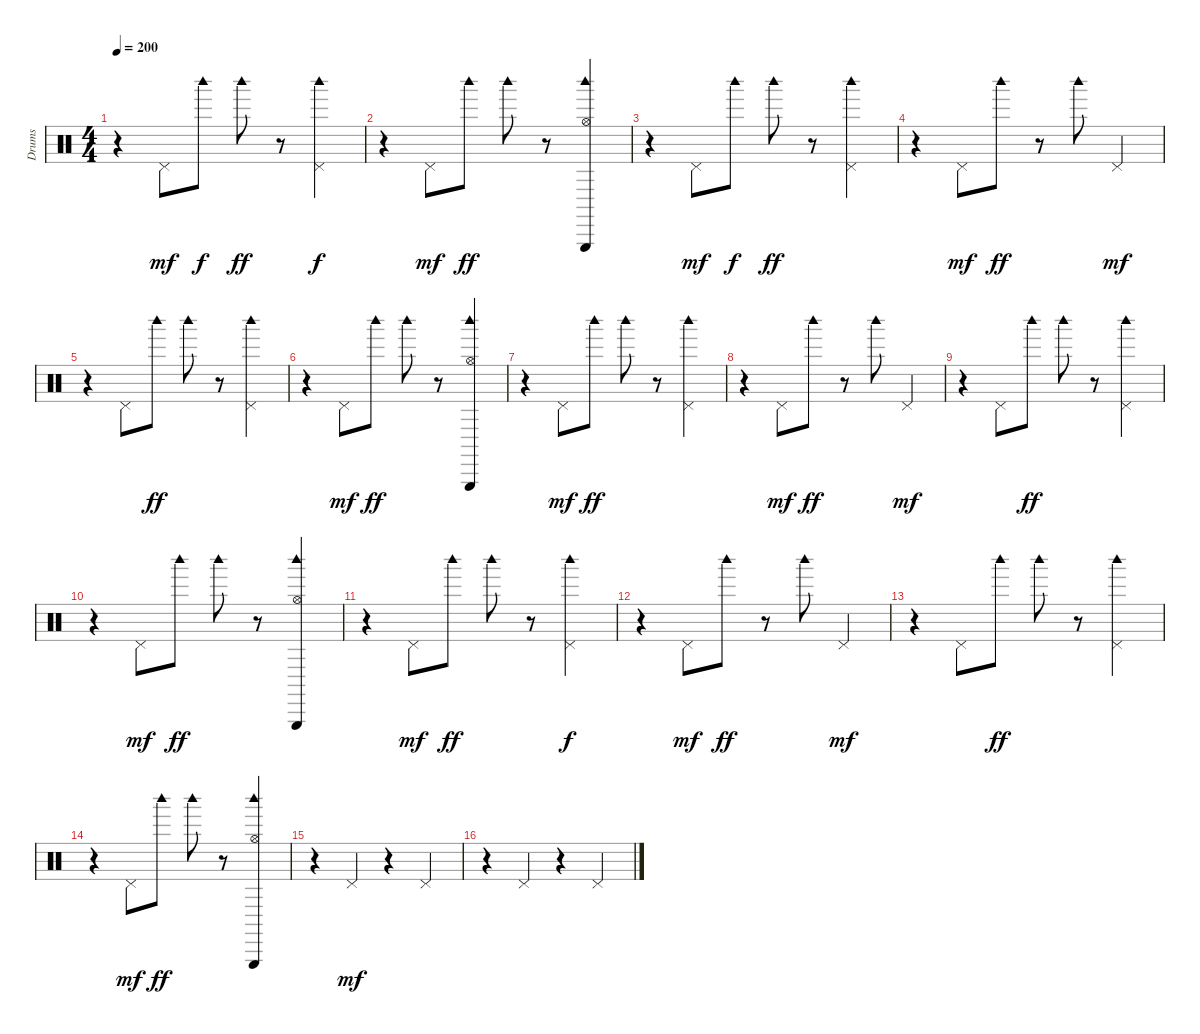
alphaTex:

\track ("Drums" "Drums") {instrument percussion}
\staff {score}
\articulation defaults
\ts (4 4)
\tempo 200
\clef neutral
\ks c
r.4{dy mf} "Pedal Hi-Hat (hit)".8 "Woodblock high (hit)".8{dy f} "Woodblock high (hit)".8{dy ff} r.8 ("Pedal Hi-Hat (hit)" "Woodblock high (hit)").4{dy f} |
r.4 "Pedal Hi-Hat (hit)".8{dy mf} "Woodblock high (hit)".8{dy ff} "Woodblock high (hit)".8 r.8 ("Woodblock high (hit)" "Hi-Hat (open)" "Triangle (hit)").4 |
r.4 "Pedal Hi-Hat (hit)".8{dy mf} "Woodblock high (hit)".8{dy f} "Woodblock high (hit)".8{dy ff} r.8 ("Pedal Hi-Hat (hit)" "Woodblock high (hit)").4 |
r.4 "Pedal Hi-Hat (hit)".8{dy mf} "Woodblock high (hit)".8{dy ff} r.8 "Woodblock high (hit)".8 "Pedal Hi-Hat (hit)".4{dy mf} |
r.4 "Pedal Hi-Hat (hit)".8 "Woodblock high (hit)".8{dy ff} "Woodblock high (hit)".8 r.8 ("Pedal Hi-Hat (hit)" "Woodblock high (hit)").4 |
r.4 "Pedal Hi-Hat (hit)".8{dy mf} "Woodblock high (hit)".8{dy ff} "Woodblock high (hit)".8 r.8 ("Woodblock high (hit)" "Hi-Hat (open)" "Triangle (hit)").4 |
r.4 "Pedal Hi-Hat (hit)".8{dy mf} "Woodblock high (hit)".8{dy ff} "Woodblock high (hit)".8 r.8 ("Pedal Hi-Hat (hit)" "Woodblock high (hit)").4 |
r.4 "Pedal Hi-Hat (hit)".8{dy mf} "Woodblock high (hit)".8{dy ff} r.8 "Woodblock high (hit)".8 "Pedal Hi-Hat (hit)".4{dy mf} |
r.4 "Pedal Hi-Hat (hit)".8 "Woodblock high (hit)".8{dy ff} "Woodblock high (hit)".8 r.8 ("Pedal Hi-Hat (hit)" "Woodblock high (hit)").4 |
r.4 "Pedal Hi-Hat (hit)".8{dy mf} "Woodblock high (hit)".8{dy ff} "Woodblock high (hit)".8 r.8 ("Woodblock high (hit)" "Hi-Hat (open)" "Triangle (hit)").4 |
r.4 "Pedal Hi-Hat (hit)".8{dy mf} "Woodblock high (hit)".8{dy ff} "Woodblock high (hit)".8 r.8 ("Pedal Hi-Hat (hit)" "Woodblock high (hit)").4{dy f} |
r.4 "Pedal Hi-Hat (hit)".8{dy mf} "Woodblock high (hit)".8{dy ff} r.8 "Woodblock high (hit)".8 "Pedal Hi-Hat (hit)".4{dy mf} |
r.4 "Pedal Hi-Hat (hit)".8 "Woodblock high (hit)".8{dy ff} "Woodblock high (hit)".8 r.8 ("Pedal Hi-Hat (hit)" "Woodblock high (hit)").4 |
r.4 "Pedal Hi-Hat (hit)".8{dy mf} "Woodblock high (hit)".8{dy ff} "Woodblock high (hit)".8 r.8 ("Woodblock high (hit)" "Hi-Hat (open)" "Triangle (hit)").4 |
r.4 "Pedal Hi-Hat (hit)".4{dy mf} r.4 "Pedal Hi-Hat (hit)".4 |
r.4 "Pedal Hi-Hat (hit)".4 r.4 "Pedal Hi-Hat (hit)".4
